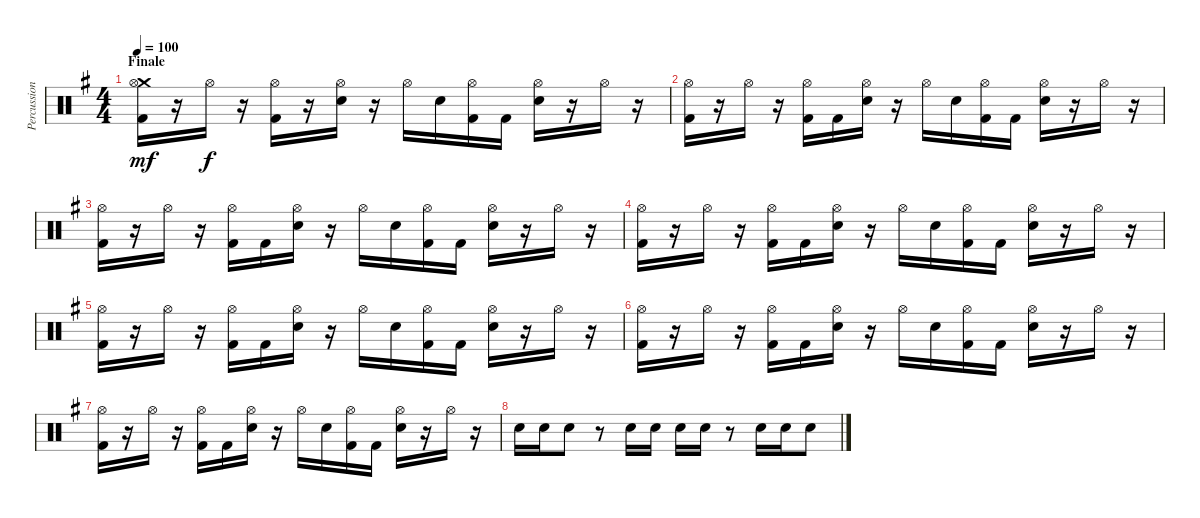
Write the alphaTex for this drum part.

\track ("Percussion" "Percussion") {instrument percussion}
\staff {score}
\articulation defaults
\ts (4 4)
\section ("" "Finale")
\tempo 100
\clef neutral
\ks g
("Crash medium (hit)" "Hi-Hat (open)" "Kick (hit) 2").16{dy mf} r.16 "Hi-Hat (open)".16{dy f} r.16 ("Hi-Hat (open)" "Kick (hit) 2").16 r.16 ("Hi-Hat (open)" "Snare (hit) 2").16 r.16 "Hi-Hat (open)".16 "Snare (hit) 2".16 ("Hi-Hat (open)" "Kick (hit) 2").16 "Kick (hit) 2".16 ("Hi-Hat (open)" "Snare (hit) 2").16 r.16 "Hi-Hat (open)".16 r.16 |
("Hi-Hat (open)" "Kick (hit) 2").16 r.16 "Hi-Hat (open)".16 r.16 ("Hi-Hat (open)" "Kick (hit) 2").16 "Kick (hit) 2".16 ("Hi-Hat (open)" "Snare (hit) 2").16 r.16 "Hi-Hat (open)".16 "Snare (hit) 2".16 ("Hi-Hat (open)" "Kick (hit) 2").16 "Kick (hit) 2".16 ("Hi-Hat (open)" "Snare (hit) 2").16 r.16 "Hi-Hat (open)".16 r.16 |
("Hi-Hat (open)" "Kick (hit) 2").16 r.16 "Hi-Hat (open)".16 r.16 ("Hi-Hat (open)" "Kick (hit) 2").16 "Kick (hit) 2".16 ("Hi-Hat (open)" "Snare (hit) 2").16 r.16 "Hi-Hat (open)".16 "Snare (hit) 2".16 ("Hi-Hat (open)" "Kick (hit) 2").16 "Kick (hit) 2".16 ("Hi-Hat (open)" "Snare (hit) 2").16 r.16 "Hi-Hat (open)".16 r.16 |
("Hi-Hat (open)" "Kick (hit) 2").16 r.16 "Hi-Hat (open)".16 r.16 ("Hi-Hat (open)" "Kick (hit) 2").16 "Kick (hit) 2".16 ("Hi-Hat (open)" "Snare (hit) 2").16 r.16 "Hi-Hat (open)".16 "Snare (hit) 2".16 ("Hi-Hat (open)" "Kick (hit) 2").16 "Kick (hit) 2".16 ("Hi-Hat (open)" "Snare (hit) 2").16 r.16 "Hi-Hat (open)".16 r.16 |
("Hi-Hat (open)" "Kick (hit) 2").16 r.16 "Hi-Hat (open)".16 r.16 ("Hi-Hat (open)" "Kick (hit) 2").16 "Kick (hit) 2".16 ("Hi-Hat (open)" "Snare (hit) 2").16 r.16 "Hi-Hat (open)".16 "Snare (hit) 2".16 ("Hi-Hat (open)" "Kick (hit) 2").16 "Kick (hit) 2".16 ("Hi-Hat (open)" "Snare (hit) 2").16 r.16 "Hi-Hat (open)".16 r.16 |
("Hi-Hat (open)" "Kick (hit) 2").16 r.16 "Hi-Hat (open)".16 r.16 ("Hi-Hat (open)" "Kick (hit) 2").16 "Kick (hit) 2".16 ("Hi-Hat (open)" "Snare (hit) 2").16 r.16 "Hi-Hat (open)".16 "Snare (hit) 2".16 ("Hi-Hat (open)" "Kick (hit) 2").16 "Kick (hit) 2".16 ("Hi-Hat (open)" "Snare (hit) 2").16 r.16 "Hi-Hat (open)".16 r.16 |
("Hi-Hat (open)" "Kick (hit) 2").16 r.16 "Hi-Hat (open)".16 r.16 ("Hi-Hat (open)" "Kick (hit) 2").16 "Kick (hit) 2".16 ("Hi-Hat (open)" "Snare (hit) 2").16 r.16 "Hi-Hat (open)".16 "Snare (hit) 2".16 ("Hi-Hat (open)" "Kick (hit) 2").16 "Kick (hit) 2".16 ("Hi-Hat (open)" "Snare (hit) 2").16 r.16 "Hi-Hat (open)".16 r.16 |
"Snare (hit) 2".16 "Snare (hit) 2".16 "Snare (hit) 2".8 r.8 "Snare (hit) 2".16 "Snare (hit) 2".16 "Snare (hit) 2".16 "Snare (hit) 2".16 r.8 "Snare (hit) 2".16 "Snare (hit) 2".16 "Snare (hit) 2".8
